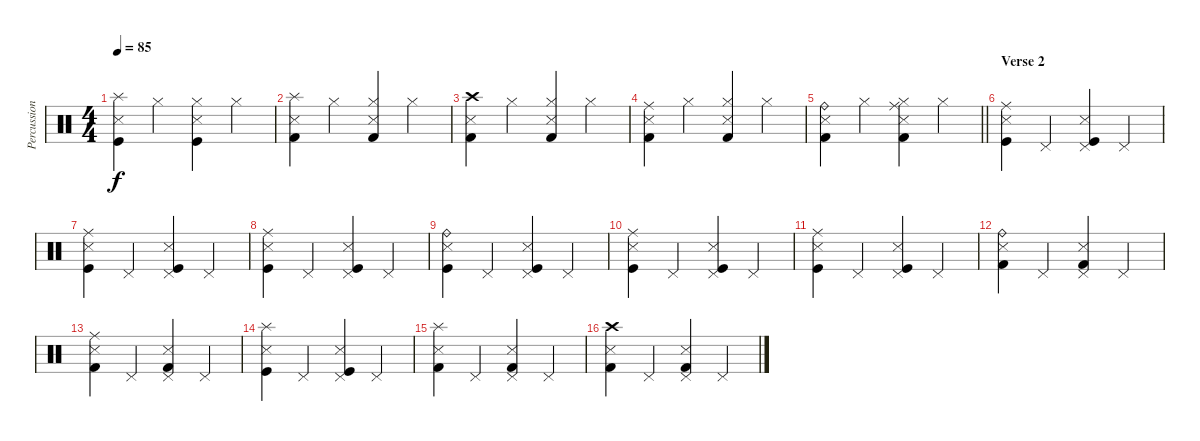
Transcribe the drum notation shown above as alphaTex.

\track ("Percussion" "Percussion") {instrument percussion}
\staff {score}
\articulation defaults
\ts (4 4)
\tempo 85
\clef neutral
\ks c
("Splash (hit)" "Snare (side stick) 3" "Kick (hit)").4{dy f} "Hi-Hat (closed)".4 ("Hi-Hat (closed)" "Snare (side stick) 3" "Kick (hit)").4 "Hi-Hat (closed)".4 |
("Splash (hit)" "Snare (side stick) 3" "Kick (hit) 2").4 "Hi-Hat (closed)".4 ("Hi-Hat (closed)" "Snare (side stick) 3" "Kick (hit) 2").4 "Hi-Hat (closed)".4 |
("Crash high (hit)" "Snare (side stick) 3" "Kick (hit) 2").4 "Hi-Hat (closed)".4 ("Hi-Hat (closed)" "Snare (side stick) 3" "Kick (hit) 2").4 "Hi-Hat (closed)".4 |
("Ride (middle)" "Snare (side stick) 3" "Kick (hit) 2").4 "Hi-Hat (closed)".4 ("Hi-Hat (closed)" "Snare (side stick) 3" "Kick (hit) 2").4 "Hi-Hat (closed)".4 |
\barLineRight lightlight
("Ride (bell)" "Snare (side stick) 3" "Kick (hit) 2").4 "Hi-Hat (closed)".4 ("Ride (middle)" "Hi-Hat (closed)" "Snare (side stick) 3" "Kick (hit) 2").4 "Hi-Hat (closed)".4 |
\section ("" "Verse 2")
("Ride (middle)" "Snare (side stick) 3" "Kick (hit)").4 "Pedal Hi-Hat (hit)".4 ("Pedal Hi-Hat (hit)" "Snare (side stick) 3" "Kick (hit)").4 "Pedal Hi-Hat (hit)".4 |
("Ride (middle)" "Snare (side stick) 3" "Kick (hit)").4 "Pedal Hi-Hat (hit)".4 ("Pedal Hi-Hat (hit)" "Snare (side stick) 3" "Kick (hit)").4 "Pedal Hi-Hat (hit)".4 |
("Ride (middle)" "Snare (side stick) 3" "Kick (hit)").4 "Pedal Hi-Hat (hit)".4 ("Pedal Hi-Hat (hit)" "Snare (side stick) 3" "Kick (hit)").4 "Pedal Hi-Hat (hit)".4 |
("Ride (bell)" "Snare (side stick) 3" "Kick (hit)").4 "Pedal Hi-Hat (hit)".4 ("Pedal Hi-Hat (hit)" "Snare (side stick) 3" "Kick (hit)").4 "Pedal Hi-Hat (hit)".4 |
("Ride (middle)" "Snare (side stick) 3" "Kick (hit)").4 "Pedal Hi-Hat (hit)".4 ("Pedal Hi-Hat (hit)" "Snare (side stick) 3" "Kick (hit)").4 "Pedal Hi-Hat (hit)".4 |
("Ride (middle)" "Snare (side stick) 3" "Kick (hit)").4 "Pedal Hi-Hat (hit)".4 ("Pedal Hi-Hat (hit)" "Snare (side stick) 3" "Kick (hit)").4 "Pedal Hi-Hat (hit)".4 |
("Ride (bell)" "Snare (side stick) 3" "Kick (hit) 2").4 "Pedal Hi-Hat (hit)".4 ("Pedal Hi-Hat (hit)" "Snare (side stick) 3" "Kick (hit) 2").4 "Pedal Hi-Hat (hit)".4 |
("Ride (middle)" "Snare (side stick) 3" "Kick (hit) 2").4 "Pedal Hi-Hat (hit)".4 ("Pedal Hi-Hat (hit)" "Snare (side stick) 3" "Kick (hit) 2").4 "Pedal Hi-Hat (hit)".4 |
("Splash (hit)" "Snare (side stick) 3" "Kick (hit)").4 "Pedal Hi-Hat (hit)".4 ("Pedal Hi-Hat (hit)" "Snare (side stick) 3" "Kick (hit)").4 "Pedal Hi-Hat (hit)".4 |
("Splash (hit)" "Snare (side stick) 3" "Kick (hit) 2").4 "Pedal Hi-Hat (hit)".4 ("Pedal Hi-Hat (hit)" "Snare (side stick) 3" "Kick (hit) 2").4 "Pedal Hi-Hat (hit)".4 |
("Crash high (hit)" "Snare (side stick) 3" "Kick (hit) 2").4 "Pedal Hi-Hat (hit)".4 ("Pedal Hi-Hat (hit)" "Snare (side stick) 3" "Kick (hit) 2").4 "Pedal Hi-Hat (hit)".4
